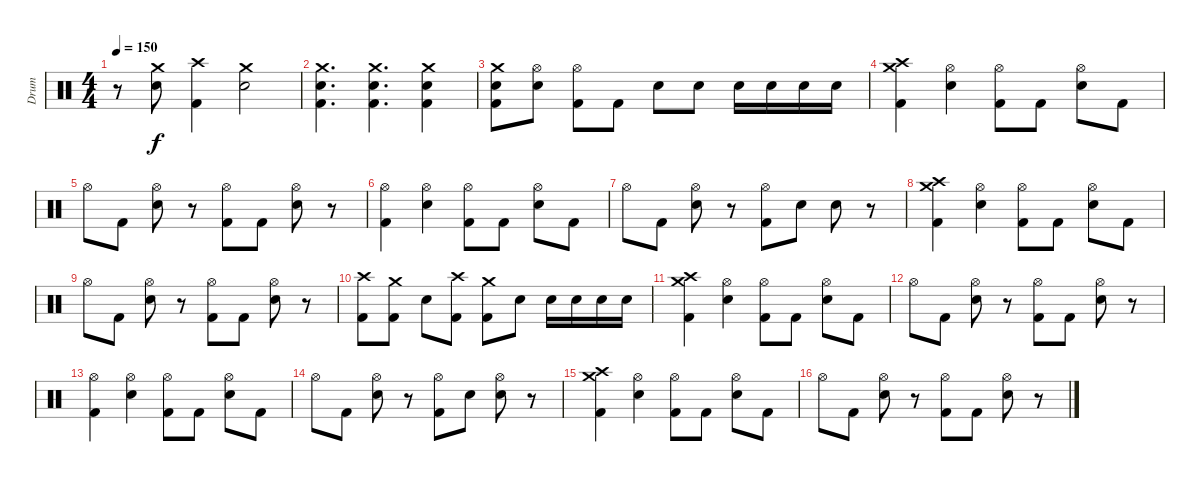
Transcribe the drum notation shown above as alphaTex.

\track ("Drum" "Drum") {instrument percussion}
\staff {score}
\articulation defaults
\ts (4 4)
\tempo 150
\clef neutral
\ks c
r.8{dy f} ("Crash medium (hit)" "Electric Snare (hit)").8 ("Crash high (hit)" "Kick (hit) 2").4 ("Crash medium (hit)" "Electric Snare (hit)").2 |
("Crash medium (hit)" "Electric Snare (hit)" "Kick (hit) 2").4{d} ("Crash medium (hit)" "Electric Snare (hit)" "Kick (hit) 2").4{d} ("Crash medium (hit)" "Electric Snare (hit)" "Kick (hit) 2").4 |
("Crash medium (hit)" "Electric Snare (hit)" "Kick (hit) 2").8 ("Hi-Hat (open)" "Electric Snare (hit)").8 ("Hi-Hat (open)" "Kick (hit) 2").8 "Kick (hit) 2".8 "Electric Snare (hit)".8 "Electric Snare (hit)".8 "Electric Snare (hit)".16 "Electric Snare (hit)".16 "Electric Snare (hit)".16 "Electric Snare (hit)".16 |
("Crash high (hit)" "Crash medium (hit)" "Kick (hit) 2").4 ("Hi-Hat (open)" "Electric Snare (hit)").4 ("Hi-Hat (open)" "Kick (hit) 2").8 "Kick (hit) 2".8 ("Hi-Hat (open)" "Electric Snare (hit)").8 "Kick (hit) 2".8 |
"Hi-Hat (open)".8 "Kick (hit) 2".8 ("Hi-Hat (open)" "Electric Snare (hit)").8 r.8 ("Hi-Hat (open)" "Kick (hit) 2").8 "Kick (hit) 2".8 ("Hi-Hat (open)" "Electric Snare (hit)").8 r.8 |
("Hi-Hat (open)" "Kick (hit) 2").4 ("Hi-Hat (open)" "Electric Snare (hit)").4 ("Hi-Hat (open)" "Kick (hit) 2").8 "Kick (hit) 2".8 ("Hi-Hat (open)" "Electric Snare (hit)").8 "Kick (hit) 2".8 |
"Hi-Hat (open)".8 "Kick (hit) 2".8 ("Hi-Hat (open)" "Electric Snare (hit)").8 r.8 ("Hi-Hat (open)" "Kick (hit) 2").8 "Electric Snare (hit)".8 "Electric Snare (hit)".8 r.8 |
("Crash high (hit)" "Crash medium (hit)" "Kick (hit) 2").4 ("Hi-Hat (open)" "Electric Snare (hit)").4 ("Hi-Hat (open)" "Kick (hit) 2").8 "Kick (hit) 2".8 ("Hi-Hat (open)" "Electric Snare (hit)").8 "Kick (hit) 2".8 |
"Hi-Hat (open)".8 "Kick (hit) 2".8 ("Hi-Hat (open)" "Electric Snare (hit)").8 r.8 ("Hi-Hat (open)" "Kick (hit) 2").8 "Kick (hit) 2".8 ("Hi-Hat (open)" "Electric Snare (hit)").8 r.8 |
("Crash high (hit)" "Kick (hit) 2").8 ("Crash medium (hit)" "Kick (hit) 2").8 "Electric Snare (hit)".8 ("Crash high (hit)" "Kick (hit) 2").8 ("Crash medium (hit)" "Kick (hit) 2").8 "Electric Snare (hit)".8 "Electric Snare (hit)".16 "Electric Snare (hit)".16 "Electric Snare (hit)".16 "Electric Snare (hit)".16 |
("Crash high (hit)" "Crash medium (hit)" "Kick (hit) 2").4 ("Hi-Hat (open)" "Electric Snare (hit)").4 ("Hi-Hat (open)" "Kick (hit) 2").8 "Kick (hit) 2".8 ("Hi-Hat (open)" "Electric Snare (hit)").8 "Kick (hit) 2".8 |
"Hi-Hat (open)".8 "Kick (hit) 2".8 ("Hi-Hat (open)" "Electric Snare (hit)").8 r.8 ("Hi-Hat (open)" "Kick (hit) 2").8 "Kick (hit) 2".8 ("Hi-Hat (open)" "Electric Snare (hit)").8 r.8 |
("Hi-Hat (open)" "Kick (hit) 2").4 ("Hi-Hat (open)" "Electric Snare (hit)").4 ("Hi-Hat (open)" "Kick (hit) 2").8 "Kick (hit) 2".8 ("Hi-Hat (open)" "Electric Snare (hit)").8 "Kick (hit) 2".8 |
"Hi-Hat (open)".8 "Kick (hit) 2".8 ("Hi-Hat (open)" "Electric Snare (hit)").8 r.8 ("Hi-Hat (open)" "Kick (hit) 2").8 "Electric Snare (hit)".8 ("Hi-Hat (open)" "Electric Snare (hit)").8 r.8 |
("Crash high (hit)" "Crash medium (hit)" "Kick (hit) 2").4 ("Hi-Hat (open)" "Electric Snare (hit)").4 ("Hi-Hat (open)" "Kick (hit) 2").8 "Kick (hit) 2".8 ("Hi-Hat (open)" "Electric Snare (hit)").8 "Kick (hit) 2".8 |
"Hi-Hat (open)".8 "Kick (hit) 2".8 ("Hi-Hat (open)" "Electric Snare (hit)").8 r.8 ("Hi-Hat (open)" "Kick (hit) 2").8 "Kick (hit) 2".8 ("Hi-Hat (open)" "Electric Snare (hit)").8 r.8
